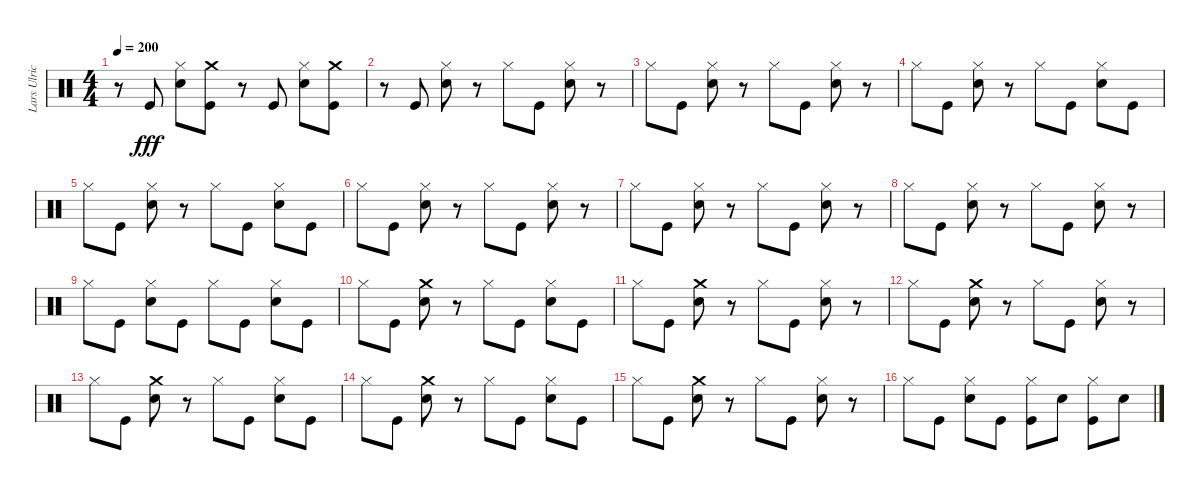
\track ("Lars Ulrich" "Lars Ulric") {instrument percussion}
\staff {score}
\articulation defaults
\ts (4 4)
\tempo 200
\clef neutral
\ks c
r.8{dy fff} "Kick (hit)".8 ("Hi-Hat (closed)" "Snare (hit) 2").8 ("Crash medium (hit)" "Kick (hit)").8 r.8 "Kick (hit)".8 ("Hi-Hat (closed)" "Snare (hit) 2").8 ("Crash medium (hit)" "Kick (hit)").8 |
r.8 "Kick (hit)".8 ("Hi-Hat (closed)" "Snare (hit) 2").8 r.8 "Hi-Hat (closed)".8 "Kick (hit)".8 ("Snare (hit) 2" "Hi-Hat (closed)").8 r.8 |
"Hi-Hat (closed)".8 "Kick (hit)".8 ("Hi-Hat (closed)" "Snare (hit) 2").8 r.8 "Hi-Hat (closed)".8 "Kick (hit)".8 ("Snare (hit) 2" "Hi-Hat (closed)").8 r.8 |
"Hi-Hat (closed)".8 "Kick (hit)".8 ("Hi-Hat (closed)" "Snare (hit) 2").8 r.8 "Hi-Hat (closed)".8 "Kick (hit)".8 ("Snare (hit) 2" "Hi-Hat (closed)").8 "Kick (hit)".8 |
"Hi-Hat (closed)".8 "Kick (hit)".8 ("Hi-Hat (closed)" "Snare (hit) 2").8 r.8 "Hi-Hat (closed)".8 "Kick (hit)".8 ("Snare (hit) 2" "Hi-Hat (closed)").8 "Kick (hit)".8 |
"Hi-Hat (closed)".8 "Kick (hit)".8 ("Hi-Hat (closed)" "Snare (hit) 2").8 r.8 "Hi-Hat (closed)".8 "Kick (hit)".8 ("Snare (hit) 2" "Hi-Hat (closed)").8 r.8 |
"Hi-Hat (closed)".8 "Kick (hit)".8 ("Hi-Hat (closed)" "Snare (hit) 2").8 r.8 "Hi-Hat (closed)".8 "Kick (hit)".8 ("Snare (hit) 2" "Hi-Hat (closed)").8 r.8 |
"Hi-Hat (closed)".8 "Kick (hit)".8 ("Hi-Hat (closed)" "Snare (hit) 2").8 r.8 "Hi-Hat (closed)".8 "Kick (hit)".8 ("Snare (hit) 2" "Hi-Hat (closed)").8 r.8 |
"Hi-Hat (closed)".8 "Kick (hit)".8 ("Hi-Hat (closed)" "Snare (hit) 2").8 "Kick (hit)".8 "Hi-Hat (closed)".8 "Kick (hit)".8 ("Snare (hit) 2" "Hi-Hat (closed)").8 "Kick (hit)".8 |
"Hi-Hat (closed)".8 "Kick (hit)".8 ("Crash medium (hit)" "Snare (hit) 2").8 r.8 "Hi-Hat (closed)".8 "Kick (hit)".8 ("Snare (hit) 2" "Hi-Hat (closed)").8 "Kick (hit)".8 |
"Hi-Hat (closed)".8 "Kick (hit)".8 ("Crash medium (hit)" "Snare (hit) 2").8 r.8 "Hi-Hat (closed)".8 "Kick (hit)".8 ("Snare (hit) 2" "Hi-Hat (closed)").8 r.8 |
"Hi-Hat (closed)".8 "Kick (hit)".8 ("Crash medium (hit)" "Snare (hit) 2").8 r.8 "Hi-Hat (closed)".8 "Kick (hit)".8 ("Snare (hit) 2" "Hi-Hat (closed)").8 r.8 |
"Hi-Hat (closed)".8 "Kick (hit)".8 ("Crash medium (hit)" "Snare (hit) 2").8 r.8 "Hi-Hat (closed)".8 "Kick (hit)".8 ("Snare (hit) 2" "Hi-Hat (closed)").8 "Kick (hit)".8 |
"Hi-Hat (closed)".8 "Kick (hit)".8 ("Crash medium (hit)" "Snare (hit) 2").8 r.8 "Hi-Hat (closed)".8 "Kick (hit)".8 ("Snare (hit) 2" "Hi-Hat (closed)").8 "Kick (hit)".8 |
"Hi-Hat (closed)".8 "Kick (hit)".8 ("Crash medium (hit)" "Snare (hit) 2").8 r.8 "Hi-Hat (closed)".8 "Kick (hit)".8 ("Snare (hit) 2" "Hi-Hat (closed)").8 r.8 |
"Hi-Hat (closed)".8 "Kick (hit)".8 ("Hi-Hat (closed)" "Snare (hit) 2").8 "Kick (hit)".8 ("Kick (hit)" "Hi-Hat (closed)").8 "Snare (hit) 2".8 ("Kick (hit)" "Hi-Hat (closed)").8 "Snare (hit) 2".8
